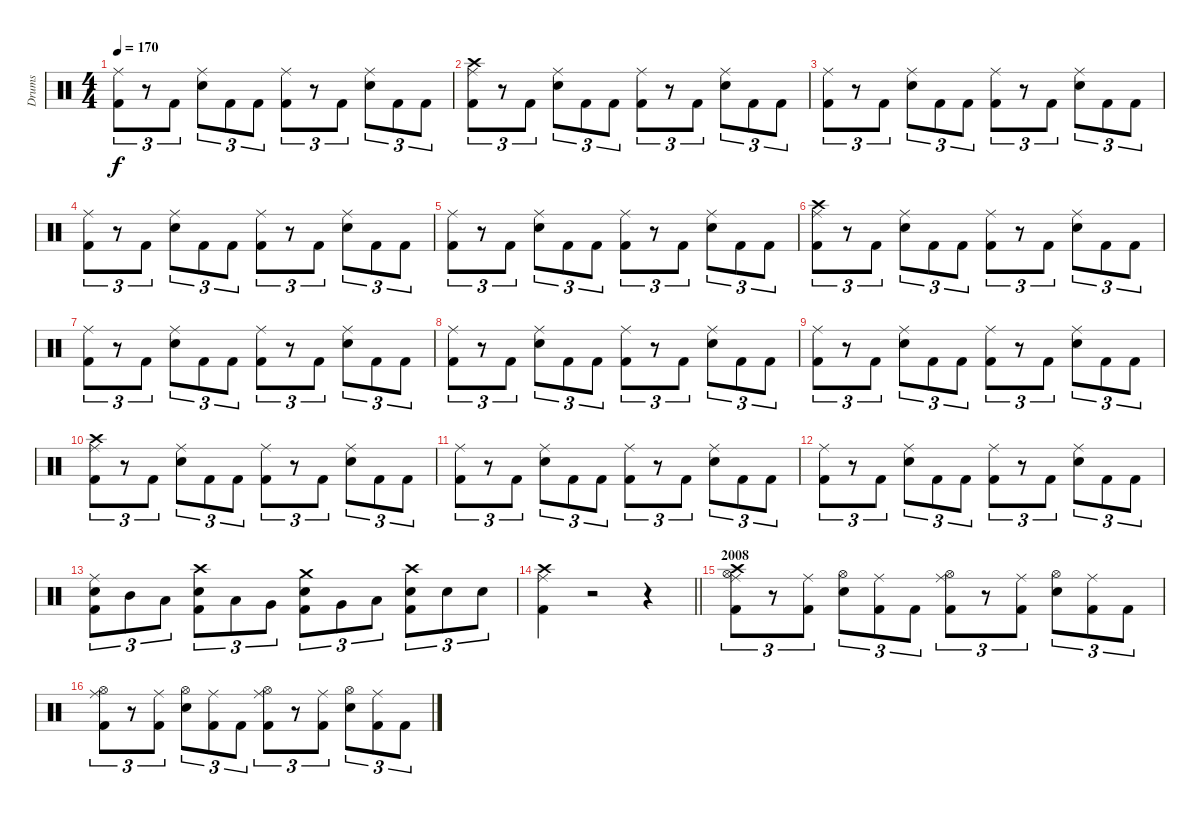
\track ("Drums" "Drums") {instrument percussion}
\staff {score}
\articulation defaults
\ts (4 4)
\tempo 170
\clef neutral
\ks c
("Ride (middle)" "Kick (hit) 2").8{tu (3 2) dy f} r.8{tu (3 2)} "Kick (hit) 2".8{tu (3 2)} ("Ride (middle)" "Snare (hit) 2").8{tu (3 2)} "Kick (hit) 2".8{tu (3 2)} "Kick (hit) 2".8{tu (3 2)} ("Ride (middle)" "Kick (hit) 2").8{tu (3 2)} r.8{tu (3 2)} "Kick (hit) 2".8{tu (3 2)} ("Ride (middle)" "Snare (hit) 2").8{tu (3 2)} "Kick (hit) 2".8{tu (3 2)} "Kick (hit) 2".8{tu (3 2)} |
("Crash high (hit)" "Ride (middle)" "Kick (hit) 2").8{tu (3 2)} r.8{tu (3 2)} "Kick (hit) 2".8{tu (3 2)} ("Ride (middle)" "Snare (hit) 2").8{tu (3 2)} "Kick (hit) 2".8{tu (3 2)} "Kick (hit) 2".8{tu (3 2)} ("Ride (middle)" "Kick (hit) 2").8{tu (3 2)} r.8{tu (3 2)} "Kick (hit) 2".8{tu (3 2)} ("Ride (middle)" "Snare (hit) 2").8{tu (3 2)} "Kick (hit) 2".8{tu (3 2)} "Kick (hit) 2".8{tu (3 2)} |
("Ride (middle)" "Kick (hit) 2").8{tu (3 2)} r.8{tu (3 2)} "Kick (hit) 2".8{tu (3 2)} ("Ride (middle)" "Snare (hit) 2").8{tu (3 2)} "Kick (hit) 2".8{tu (3 2)} "Kick (hit) 2".8{tu (3 2)} ("Ride (middle)" "Kick (hit) 2").8{tu (3 2)} r.8{tu (3 2)} "Kick (hit) 2".8{tu (3 2)} ("Ride (middle)" "Snare (hit) 2").8{tu (3 2)} "Kick (hit) 2".8{tu (3 2)} "Kick (hit) 2".8{tu (3 2)} |
("Ride (middle)" "Kick (hit) 2").8{tu (3 2)} r.8{tu (3 2)} "Kick (hit) 2".8{tu (3 2)} ("Ride (middle)" "Snare (hit) 2").8{tu (3 2)} "Kick (hit) 2".8{tu (3 2)} "Kick (hit) 2".8{tu (3 2)} ("Ride (middle)" "Kick (hit) 2").8{tu (3 2)} r.8{tu (3 2)} "Kick (hit) 2".8{tu (3 2)} ("Ride (middle)" "Snare (hit) 2").8{tu (3 2)} "Kick (hit) 2".8{tu (3 2)} "Kick (hit) 2".8{tu (3 2)} |
("Ride (middle)" "Kick (hit) 2").8{tu (3 2)} r.8{tu (3 2)} "Kick (hit) 2".8{tu (3 2)} ("Ride (middle)" "Snare (hit) 2").8{tu (3 2)} "Kick (hit) 2".8{tu (3 2)} "Kick (hit) 2".8{tu (3 2)} ("Ride (middle)" "Kick (hit) 2").8{tu (3 2)} r.8{tu (3 2)} "Kick (hit) 2".8{tu (3 2)} ("Ride (middle)" "Snare (hit) 2").8{tu (3 2)} "Kick (hit) 2".8{tu (3 2)} "Kick (hit) 2".8{tu (3 2)} |
("Crash high (hit)" "Ride (middle)" "Kick (hit) 2").8{tu (3 2)} r.8{tu (3 2)} "Kick (hit) 2".8{tu (3 2)} ("Ride (middle)" "Snare (hit) 2").8{tu (3 2)} "Kick (hit) 2".8{tu (3 2)} "Kick (hit) 2".8{tu (3 2)} ("Ride (middle)" "Kick (hit) 2").8{tu (3 2)} r.8{tu (3 2)} "Kick (hit) 2".8{tu (3 2)} ("Ride (middle)" "Snare (hit) 2").8{tu (3 2)} "Kick (hit) 2".8{tu (3 2)} "Kick (hit) 2".8{tu (3 2)} |
("Ride (middle)" "Kick (hit) 2").8{tu (3 2)} r.8{tu (3 2)} "Kick (hit) 2".8{tu (3 2)} ("Ride (middle)" "Snare (hit) 2").8{tu (3 2)} "Kick (hit) 2".8{tu (3 2)} "Kick (hit) 2".8{tu (3 2)} ("Ride (middle)" "Kick (hit) 2").8{tu (3 2)} r.8{tu (3 2)} "Kick (hit) 2".8{tu (3 2)} ("Ride (middle)" "Snare (hit) 2").8{tu (3 2)} "Kick (hit) 2".8{tu (3 2)} "Kick (hit) 2".8{tu (3 2)} |
("Ride (middle)" "Kick (hit) 2").8{tu (3 2)} r.8{tu (3 2)} "Kick (hit) 2".8{tu (3 2)} ("Ride (middle)" "Snare (hit) 2").8{tu (3 2)} "Kick (hit) 2".8{tu (3 2)} "Kick (hit) 2".8{tu (3 2)} ("Ride (middle)" "Kick (hit) 2").8{tu (3 2)} r.8{tu (3 2)} "Kick (hit) 2".8{tu (3 2)} ("Ride (middle)" "Snare (hit) 2").8{tu (3 2)} "Kick (hit) 2".8{tu (3 2)} "Kick (hit) 2".8{tu (3 2)} |
("Ride (middle)" "Kick (hit) 2").8{tu (3 2)} r.8{tu (3 2)} "Kick (hit) 2".8{tu (3 2)} ("Ride (middle)" "Snare (hit) 2").8{tu (3 2)} "Kick (hit) 2".8{tu (3 2)} "Kick (hit) 2".8{tu (3 2)} ("Ride (middle)" "Kick (hit) 2").8{tu (3 2)} r.8{tu (3 2)} "Kick (hit) 2".8{tu (3 2)} ("Ride (middle)" "Snare (hit) 2").8{tu (3 2)} "Kick (hit) 2".8{tu (3 2)} "Kick (hit) 2".8{tu (3 2)} |
("Crash high (hit)" "Ride (middle)" "Kick (hit) 2").8{tu (3 2)} r.8{tu (3 2)} "Kick (hit) 2".8{tu (3 2)} ("Ride (middle)" "Snare (hit) 2").8{tu (3 2)} "Kick (hit) 2".8{tu (3 2)} "Kick (hit) 2".8{tu (3 2)} ("Ride (middle)" "Kick (hit) 2").8{tu (3 2)} r.8{tu (3 2)} "Kick (hit) 2".8{tu (3 2)} ("Ride (middle)" "Snare (hit) 2").8{tu (3 2)} "Kick (hit) 2".8{tu (3 2)} "Kick (hit) 2".8{tu (3 2)} |
("Ride (middle)" "Kick (hit) 2").8{tu (3 2)} r.8{tu (3 2)} "Kick (hit) 2".8{tu (3 2)} ("Ride (middle)" "Snare (hit) 2").8{tu (3 2)} "Kick (hit) 2".8{tu (3 2)} "Kick (hit) 2".8{tu (3 2)} ("Ride (middle)" "Kick (hit) 2").8{tu (3 2)} r.8{tu (3 2)} "Kick (hit) 2".8{tu (3 2)} ("Ride (middle)" "Snare (hit) 2").8{tu (3 2)} "Kick (hit) 2".8{tu (3 2)} "Kick (hit) 2".8{tu (3 2)} |
("Ride (middle)" "Kick (hit) 2").8{tu (3 2)} r.8{tu (3 2)} "Kick (hit) 2".8{tu (3 2)} ("Ride (middle)" "Snare (hit) 2").8{tu (3 2)} "Kick (hit) 2".8{tu (3 2)} "Kick (hit) 2".8{tu (3 2)} ("Ride (middle)" "Kick (hit) 2").8{tu (3 2)} r.8{tu (3 2)} "Kick (hit) 2".8{tu (3 2)} ("Ride (middle)" "Snare (hit) 2").8{tu (3 2)} "Kick (hit) 2".8{tu (3 2)} "Kick (hit) 2".8{tu (3 2)} |
("Ride (middle)" "Snare (hit) 2" "Kick (hit) 2").8{tu (3 2)} "Mid Tom (hit)".8{tu (3 2)} "Low Tom (hit)".8{tu (3 2)} ("Crash high (hit)" "Snare (hit) 2" "Kick (hit) 2").8{tu (3 2)} "Low Tom (hit)".8{tu (3 2)} "Very Low Tom (hit)".8{tu (3 2)} ("Crash medium (hit)" "Snare (hit) 2" "Kick (hit) 2").8{tu (3 2)} "Very Low Tom (hit)".8{tu (3 2)} "Low Floor Tom (hit)".8{tu (3 2)} ("Crash high (hit)" "Snare (hit) 2" "Kick (hit) 2").8{tu (3 2)} "Snare (hit) 2".8{tu (3 2)} "Snare (hit) 2".8{tu (3 2)} |
\barLineRight lightlight
("Crash high (hit)" "Ride (middle)" "Kick (hit) 2").4 r.2 r.4 |
\section ("" "2008")
("Crash high (hit)" "Ride (middle)" "Hi-Hat (open)" "Kick (hit) 2").8{tu (3 2)} r.8{tu (3 2)} ("Ride (middle)" "Kick (hit) 2").8{tu (3 2)} ("Hi-Hat (open)" "Snare (hit) 2").8{tu (3 2)} ("Ride (middle)" "Kick (hit) 2").8{tu (3 2)} "Kick (hit) 2".8{tu (3 2)} ("Ride (middle)" "Hi-Hat (open)" "Kick (hit) 2").8{tu (3 2)} r.8{tu (3 2)} ("Ride (middle)" "Kick (hit) 2").8{tu (3 2)} ("Hi-Hat (open)" "Snare (hit) 2").8{tu (3 2)} ("Ride (middle)" "Kick (hit) 2").8{tu (3 2)} "Kick (hit) 2".8{tu (3 2)} |
("Ride (middle)" "Hi-Hat (open)" "Kick (hit) 2").8{tu (3 2)} r.8{tu (3 2)} ("Ride (middle)" "Kick (hit) 2").8{tu (3 2)} ("Hi-Hat (open)" "Snare (hit) 2").8{tu (3 2)} ("Ride (middle)" "Kick (hit) 2").8{tu (3 2)} "Kick (hit) 2".8{tu (3 2)} ("Ride (middle)" "Hi-Hat (open)" "Kick (hit) 2").8{tu (3 2)} r.8{tu (3 2)} ("Ride (middle)" "Kick (hit) 2").8{tu (3 2)} ("Hi-Hat (open)" "Snare (hit) 2").8{tu (3 2)} ("Ride (middle)" "Kick (hit) 2").8{tu (3 2)} "Kick (hit) 2".8{tu (3 2)}
